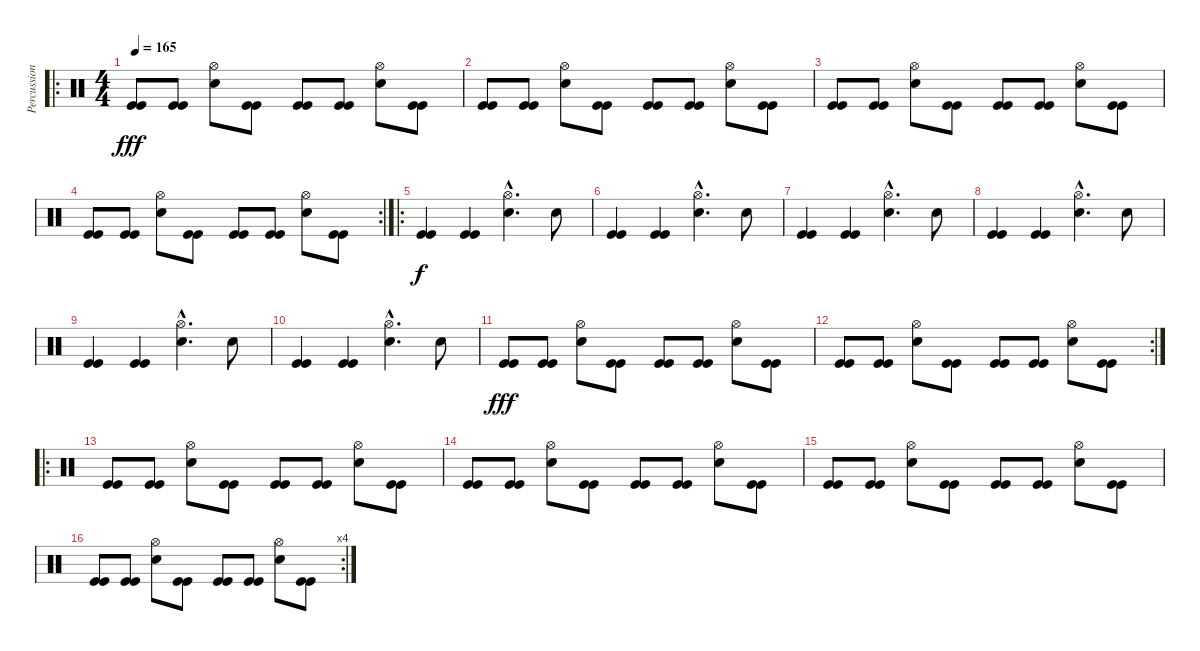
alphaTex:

\track ("Percussions" "Percussion") {instrument percussion}
\staff {score}
\articulation defaults
\ro
\ts (4 4)
\tempo 165
\clef neutral
\ks c
("Kick (hit)" "Kick (hit)").8{dy fff} ("Kick (hit)" "Kick (hit)").8 ("Snare (hit) 2" "Hi-Hat (open)").8 ("Kick (hit)" "Kick (hit)").8 ("Kick (hit)" "Kick (hit)").8 ("Kick (hit)" "Kick (hit)").8 ("Snare (hit) 2" "Hi-Hat (open)").8 ("Kick (hit)" "Kick (hit)").8 |
("Kick (hit)" "Kick (hit)").8 ("Kick (hit)" "Kick (hit)").8 ("Snare (hit) 2" "Hi-Hat (open)").8 ("Kick (hit)" "Kick (hit)").8 ("Kick (hit)" "Kick (hit)").8 ("Kick (hit)" "Kick (hit)").8 ("Snare (hit) 2" "Hi-Hat (open)").8 ("Kick (hit)" "Kick (hit)").8 |
("Kick (hit)" "Kick (hit)").8 ("Kick (hit)" "Kick (hit)").8 ("Snare (hit) 2" "Hi-Hat (open)").8 ("Kick (hit)" "Kick (hit)").8 ("Kick (hit)" "Kick (hit)").8 ("Kick (hit)" "Kick (hit)").8 ("Snare (hit) 2" "Hi-Hat (open)").8 ("Kick (hit)" "Kick (hit)").8 |
\rc 2
("Kick (hit)" "Kick (hit)").8 ("Kick (hit)" "Kick (hit)").8 ("Snare (hit) 2" "Hi-Hat (open)").8 ("Kick (hit)" "Kick (hit)").8 ("Kick (hit)" "Kick (hit)").8 ("Kick (hit)" "Kick (hit)").8 ("Snare (hit) 2" "Hi-Hat (open)").8 ("Kick (hit)" "Kick (hit)").8 |
\ro
("Kick (hit)" "Kick (hit)").4{dy f} ("Kick (hit)" "Kick (hit)").4 ("Snare (hit) 2"{hac} "Hi-Hat (open)"{hac}).4{d} "Snare (hit) 2".8 |
("Kick (hit)" "Kick (hit)").4 ("Kick (hit)" "Kick (hit)").4 ("Snare (hit) 2"{hac} "Hi-Hat (open)"{hac}).4{d} "Snare (hit) 2".8 |
("Kick (hit)" "Kick (hit)").4 ("Kick (hit)" "Kick (hit)").4 ("Snare (hit) 2"{hac} "Hi-Hat (open)"{hac}).4{d} "Snare (hit) 2".8 |
("Kick (hit)" "Kick (hit)").4 ("Kick (hit)" "Kick (hit)").4 ("Snare (hit) 2"{hac} "Hi-Hat (open)"{hac}).4{d} "Snare (hit) 2".8 |
("Kick (hit)" "Kick (hit)").4 ("Kick (hit)" "Kick (hit)").4 ("Snare (hit) 2"{hac} "Hi-Hat (open)"{hac}).4{d} "Snare (hit) 2".8 |
("Kick (hit)" "Kick (hit)").4 ("Kick (hit)" "Kick (hit)").4 ("Snare (hit) 2"{hac} "Hi-Hat (open)"{hac}).4{d} "Snare (hit) 2".8 |
("Kick (hit)" "Kick (hit)").8{dy fff} ("Kick (hit)" "Kick (hit)").8 ("Snare (hit) 2" "Hi-Hat (open)").8 ("Kick (hit)" "Kick (hit)").8 ("Kick (hit)" "Kick (hit)").8 ("Kick (hit)" "Kick (hit)").8 ("Snare (hit) 2" "Hi-Hat (open)").8 ("Kick (hit)" "Kick (hit)").8 |
\rc 2
("Kick (hit)" "Kick (hit)").8 ("Kick (hit)" "Kick (hit)").8 ("Snare (hit) 2" "Hi-Hat (open)").8 ("Kick (hit)" "Kick (hit)").8 ("Kick (hit)" "Kick (hit)").8 ("Kick (hit)" "Kick (hit)").8 ("Snare (hit) 2" "Hi-Hat (open)").8 ("Kick (hit)" "Kick (hit)").8 |
\ro
("Kick (hit)" "Kick (hit)").8 ("Kick (hit)" "Kick (hit)").8 ("Snare (hit) 2" "Hi-Hat (open)").8 ("Kick (hit)" "Kick (hit)").8 ("Kick (hit)" "Kick (hit)").8 ("Kick (hit)" "Kick (hit)").8 ("Snare (hit) 2" "Hi-Hat (open)").8 ("Kick (hit)" "Kick (hit)").8 |
("Kick (hit)" "Kick (hit)").8 ("Kick (hit)" "Kick (hit)").8 ("Snare (hit) 2" "Hi-Hat (open)").8 ("Kick (hit)" "Kick (hit)").8 ("Kick (hit)" "Kick (hit)").8 ("Kick (hit)" "Kick (hit)").8 ("Snare (hit) 2" "Hi-Hat (open)").8 ("Kick (hit)" "Kick (hit)").8 |
("Kick (hit)" "Kick (hit)").8 ("Kick (hit)" "Kick (hit)").8 ("Snare (hit) 2" "Hi-Hat (open)").8 ("Kick (hit)" "Kick (hit)").8 ("Kick (hit)" "Kick (hit)").8 ("Kick (hit)" "Kick (hit)").8 ("Snare (hit) 2" "Hi-Hat (open)").8 ("Kick (hit)" "Kick (hit)").8 |
\rc 4
("Kick (hit)" "Kick (hit)").8 ("Kick (hit)" "Kick (hit)").8 ("Snare (hit) 2" "Hi-Hat (open)").8 ("Kick (hit)" "Kick (hit)").8 ("Kick (hit)" "Kick (hit)").8 ("Kick (hit)" "Kick (hit)").8 ("Snare (hit) 2" "Hi-Hat (open)").8 ("Kick (hit)" "Kick (hit)").8
